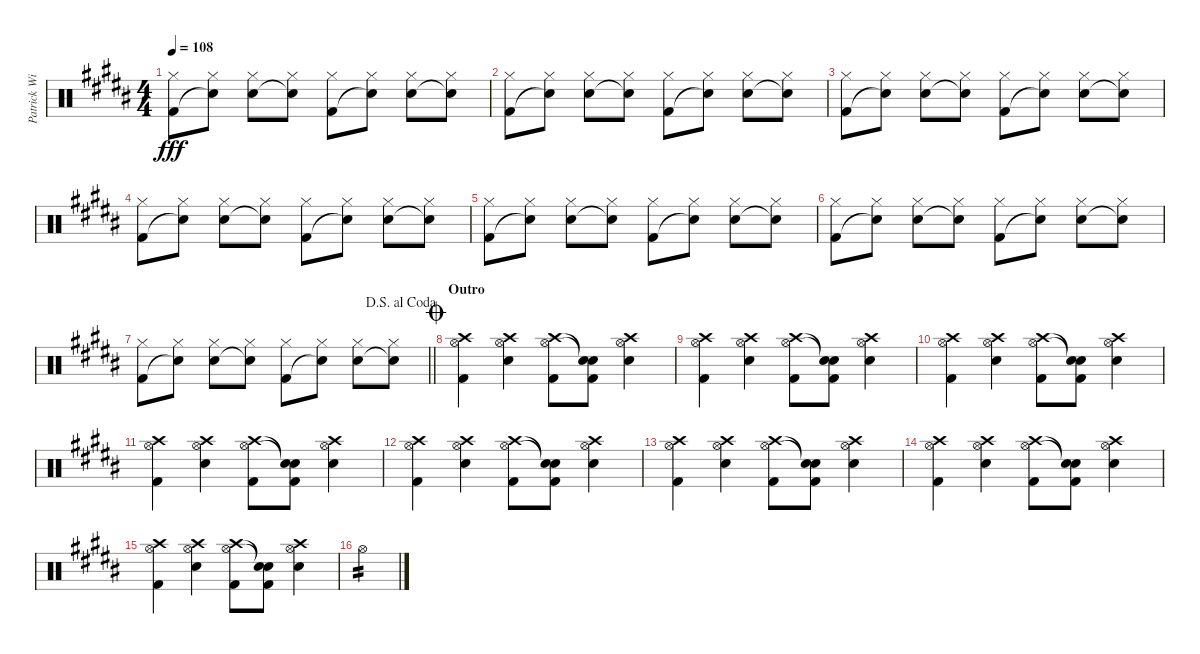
\track ("Patrick Wilson - Drums" "Patrick Wi") {instrument percussion}
\staff {score}
\articulation defaults
\ts (4 4)
\tempo 108
\clef neutral
\ks b
("Hi-Hat (closed)" "Kick (hit) 2").8{dy fff} ("Hi-Hat (closed)" "Snare (hit)"{t}).8 ("Hi-Hat (closed)" "Electric Snare (hit)").8 ("Hi-Hat (closed)" "Snare (hit)"{t}).8 ("Hi-Hat (closed)" "Kick (hit) 2").8 ("Hi-Hat (closed)" "Snare (hit)"{t}).8 ("Hi-Hat (closed)" "Electric Snare (hit)").8 ("Hi-Hat (closed)" "Snare (hit)"{t}).8 |
("Hi-Hat (closed)" "Kick (hit) 2").8 ("Hi-Hat (closed)" "Snare (hit)"{t}).8 ("Hi-Hat (closed)" "Electric Snare (hit)").8 ("Hi-Hat (closed)" "Snare (hit)"{t}).8 ("Hi-Hat (closed)" "Kick (hit) 2").8 ("Hi-Hat (closed)" "Snare (hit)"{t}).8 ("Hi-Hat (closed)" "Electric Snare (hit)").8 ("Hi-Hat (closed)" "Snare (hit)"{t}).8 |
("Hi-Hat (closed)" "Kick (hit) 2").8 ("Hi-Hat (closed)" "Snare (hit)"{t}).8 ("Hi-Hat (closed)" "Electric Snare (hit)").8 ("Hi-Hat (closed)" "Snare (hit)"{t}).8 ("Hi-Hat (closed)" "Kick (hit) 2").8 ("Hi-Hat (closed)" "Snare (hit)"{t}).8 ("Hi-Hat (closed)" "Electric Snare (hit)").8 ("Hi-Hat (closed)" "Snare (hit)"{t}).8 |
("Hi-Hat (closed)" "Kick (hit) 2").8 ("Hi-Hat (closed)" "Snare (hit)"{t}).8 ("Hi-Hat (closed)" "Electric Snare (hit)").8 ("Hi-Hat (closed)" "Snare (hit)"{t}).8 ("Hi-Hat (closed)" "Kick (hit) 2").8 ("Hi-Hat (closed)" "Snare (hit)"{t}).8 ("Hi-Hat (closed)" "Electric Snare (hit)").8 ("Hi-Hat (closed)" "Snare (hit)"{t}).8 |
("Hi-Hat (closed)" "Kick (hit) 2").8 ("Hi-Hat (closed)" "Snare (hit)"{t}).8 ("Hi-Hat (closed)" "Electric Snare (hit)").8 ("Hi-Hat (closed)" "Snare (hit)"{t}).8 ("Hi-Hat (closed)" "Kick (hit) 2").8 ("Hi-Hat (closed)" "Snare (hit)"{t}).8 ("Hi-Hat (closed)" "Electric Snare (hit)").8 ("Hi-Hat (closed)" "Snare (hit)"{t}).8 |
("Hi-Hat (closed)" "Kick (hit) 2").8 ("Hi-Hat (closed)" "Snare (hit)"{t}).8 ("Hi-Hat (closed)" "Electric Snare (hit)").8 ("Hi-Hat (closed)" "Snare (hit)"{t}).8 ("Hi-Hat (closed)" "Kick (hit) 2").8 ("Hi-Hat (closed)" "Snare (hit)"{t}).8 ("Hi-Hat (closed)" "Electric Snare (hit)").8 ("Hi-Hat (closed)" "Snare (hit)"{t}).8 |
\jump dalsegnoalcoda
\barLineRight lightlight
("Hi-Hat (closed)" "Kick (hit) 2").8 ("Hi-Hat (closed)" "Snare (hit)"{t}).8 ("Hi-Hat (closed)" "Electric Snare (hit)").8 ("Hi-Hat (closed)" "Snare (hit)"{t}).8 ("Hi-Hat (closed)" "Kick (hit) 2").8 ("Hi-Hat (closed)" "Snare (hit)"{t}).8 ("Hi-Hat (closed)" "Electric Snare (hit)").8 ("Hi-Hat (closed)" "Snare (hit)"{t}).8 |
\section ("" "Outro")
\jump coda
("Crash high (hit)" "Hi-Hat (open)" "Kick (hit) 2").4 ("Crash high (hit)" "Hi-Hat (open)" "Electric Snare (hit)").4 ("Crash high (hit)" "Hi-Hat (open)" "Kick (hit) 2").8 ("Snare (hit)"{t} "Snare (hit)"{t} "Kick (hit) 2").8 ("Crash high (hit)" "Hi-Hat (open)" "Electric Snare (hit)").4 |
("Crash high (hit)" "Hi-Hat (open)" "Kick (hit) 2").4 ("Crash high (hit)" "Hi-Hat (open)" "Electric Snare (hit)").4 ("Crash high (hit)" "Hi-Hat (open)" "Kick (hit) 2").8 ("Snare (hit)"{t} "Snare (hit)"{t} "Kick (hit) 2").8 ("Crash high (hit)" "Hi-Hat (open)" "Electric Snare (hit)").4 |
("Crash high (hit)" "Hi-Hat (open)" "Kick (hit) 2").4 ("Crash high (hit)" "Hi-Hat (open)" "Electric Snare (hit)").4 ("Crash high (hit)" "Hi-Hat (open)" "Kick (hit) 2").8 ("Snare (hit)"{t} "Snare (hit)"{t} "Kick (hit) 2").8 ("Crash high (hit)" "Hi-Hat (open)" "Electric Snare (hit)").4 |
("Crash high (hit)" "Hi-Hat (open)" "Kick (hit) 2").4 ("Crash high (hit)" "Hi-Hat (open)" "Electric Snare (hit)").4 ("Crash high (hit)" "Hi-Hat (open)" "Kick (hit) 2").8 ("Snare (hit)"{t} "Snare (hit)"{t} "Kick (hit) 2").8 ("Crash high (hit)" "Hi-Hat (open)" "Electric Snare (hit)").4 |
("Crash high (hit)" "Hi-Hat (open)" "Kick (hit) 2").4 ("Crash high (hit)" "Hi-Hat (open)" "Electric Snare (hit)").4 ("Crash high (hit)" "Hi-Hat (open)" "Kick (hit) 2").8 ("Snare (hit)"{t} "Snare (hit)"{t} "Kick (hit) 2").8 ("Crash high (hit)" "Hi-Hat (open)" "Electric Snare (hit)").4 |
("Crash high (hit)" "Hi-Hat (open)" "Kick (hit) 2").4 ("Crash high (hit)" "Hi-Hat (open)" "Electric Snare (hit)").4 ("Crash high (hit)" "Hi-Hat (open)" "Kick (hit) 2").8 ("Snare (hit)"{t} "Snare (hit)"{t} "Kick (hit) 2").8 ("Crash high (hit)" "Hi-Hat (open)" "Electric Snare (hit)").4 |
("Crash high (hit)" "Hi-Hat (open)" "Kick (hit) 2").4 ("Crash high (hit)" "Hi-Hat (open)" "Electric Snare (hit)").4 ("Crash high (hit)" "Hi-Hat (open)" "Kick (hit) 2").8 ("Snare (hit)"{t} "Snare (hit)"{t} "Kick (hit) 2").8 ("Crash high (hit)" "Hi-Hat (open)" "Electric Snare (hit)").4 |
("Crash high (hit)" "Hi-Hat (open)" "Kick (hit) 2").4 ("Crash high (hit)" "Hi-Hat (open)" "Electric Snare (hit)").4 ("Crash high (hit)" "Hi-Hat (open)" "Kick (hit) 2").8 ("Snare (hit)"{t} "Snare (hit)"{t} "Kick (hit) 2").8 ("Crash high (hit)" "Hi-Hat (open)" "Electric Snare (hit)").4 |
"Hi-Hat (open)".4{tp 2 volume 16}
